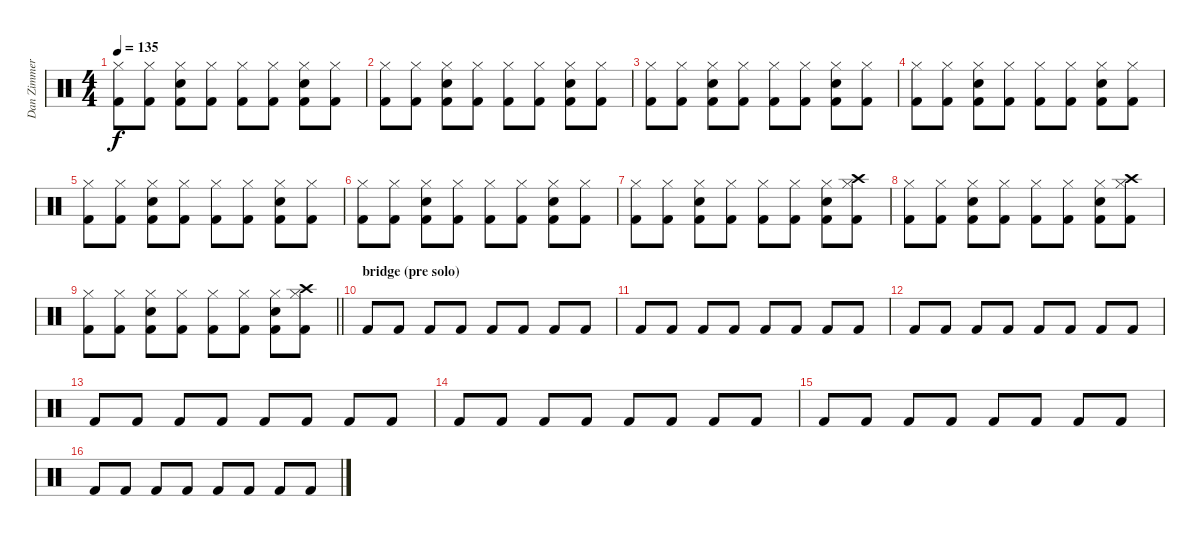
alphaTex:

\track ("Dan Zimmerman" "Dan Zimmer") {instrument percussion}
\staff {score}
\articulation defaults
\ts (4 4)
\tempo 135
\clef neutral
\ks c
("Hi-Hat (closed)" "Kick (hit) 2").8{dy f} ("Hi-Hat (closed)" "Kick (hit) 2").8 ("Snare (hit) 2" "Hi-Hat (closed)" "Kick (hit) 2").8 ("Hi-Hat (closed)" "Kick (hit) 2").8 ("Hi-Hat (closed)" "Kick (hit) 2").8 ("Hi-Hat (closed)" "Kick (hit) 2").8 ("Snare (hit) 2" "Hi-Hat (closed)" "Kick (hit) 2").8 ("Hi-Hat (closed)" "Kick (hit) 2").8 |
("Hi-Hat (closed)" "Kick (hit) 2").8 ("Hi-Hat (closed)" "Kick (hit) 2").8 ("Snare (hit) 2" "Hi-Hat (closed)" "Kick (hit) 2").8 ("Hi-Hat (closed)" "Kick (hit) 2").8 ("Hi-Hat (closed)" "Kick (hit) 2").8 ("Hi-Hat (closed)" "Kick (hit) 2").8 ("Snare (hit) 2" "Hi-Hat (closed)" "Kick (hit) 2").8 ("Hi-Hat (closed)" "Kick (hit) 2").8 |
("Hi-Hat (closed)" "Kick (hit) 2").8 ("Hi-Hat (closed)" "Kick (hit) 2").8 ("Snare (hit) 2" "Hi-Hat (closed)" "Kick (hit) 2").8 ("Hi-Hat (closed)" "Kick (hit) 2").8 ("Hi-Hat (closed)" "Kick (hit) 2").8 ("Hi-Hat (closed)" "Kick (hit) 2").8 ("Snare (hit) 2" "Hi-Hat (closed)" "Kick (hit) 2").8 ("Hi-Hat (closed)" "Kick (hit) 2").8 |
("Hi-Hat (closed)" "Kick (hit) 2").8 ("Hi-Hat (closed)" "Kick (hit) 2").8 ("Snare (hit) 2" "Hi-Hat (closed)" "Kick (hit) 2").8 ("Hi-Hat (closed)" "Kick (hit) 2").8 ("Hi-Hat (closed)" "Kick (hit) 2").8 ("Hi-Hat (closed)" "Kick (hit) 2").8 ("Snare (hit) 2" "Hi-Hat (closed)" "Kick (hit) 2").8 ("Hi-Hat (closed)" "Kick (hit) 2").8 |
("Hi-Hat (closed)" "Kick (hit) 2").8 ("Hi-Hat (closed)" "Kick (hit) 2").8 ("Snare (hit) 2" "Hi-Hat (closed)" "Kick (hit) 2").8 ("Hi-Hat (closed)" "Kick (hit) 2").8 ("Hi-Hat (closed)" "Kick (hit) 2").8 ("Hi-Hat (closed)" "Kick (hit) 2").8 ("Snare (hit) 2" "Hi-Hat (closed)" "Kick (hit) 2").8 ("Hi-Hat (closed)" "Kick (hit) 2").8 |
("Hi-Hat (closed)" "Kick (hit) 2").8 ("Hi-Hat (closed)" "Kick (hit) 2").8 ("Snare (hit) 2" "Hi-Hat (closed)" "Kick (hit) 2").8 ("Hi-Hat (closed)" "Kick (hit) 2").8 ("Hi-Hat (closed)" "Kick (hit) 2").8 ("Hi-Hat (closed)" "Kick (hit) 2").8 ("Snare (hit) 2" "Hi-Hat (closed)" "Kick (hit) 2").8 ("Hi-Hat (closed)" "Kick (hit) 2").8 |
("Hi-Hat (closed)" "Kick (hit) 2").8 ("Hi-Hat (closed)" "Kick (hit) 2").8 ("Snare (hit) 2" "Hi-Hat (closed)" "Kick (hit) 2").8 ("Hi-Hat (closed)" "Kick (hit) 2").8 ("Hi-Hat (closed)" "Kick (hit) 2").8 ("Hi-Hat (closed)" "Kick (hit) 2").8 ("Snare (hit) 2" "Hi-Hat (closed)" "Kick (hit) 2").8 ("Crash high (hit)" "Hi-Hat (closed)" "Kick (hit) 2").8 |
("Hi-Hat (closed)" "Kick (hit) 2").8 ("Hi-Hat (closed)" "Kick (hit) 2").8 ("Snare (hit) 2" "Hi-Hat (closed)" "Kick (hit) 2").8 ("Hi-Hat (closed)" "Kick (hit) 2").8 ("Hi-Hat (closed)" "Kick (hit) 2").8 ("Hi-Hat (closed)" "Kick (hit) 2").8 ("Snare (hit) 2" "Hi-Hat (closed)" "Kick (hit) 2").8 ("Crash high (hit)" "Hi-Hat (closed)" "Kick (hit) 2").8 |
\barLineRight lightlight
("Hi-Hat (closed)" "Kick (hit) 2").8 ("Hi-Hat (closed)" "Kick (hit) 2").8 ("Snare (hit) 2" "Hi-Hat (closed)" "Kick (hit) 2").8 ("Hi-Hat (closed)" "Kick (hit) 2").8 ("Hi-Hat (closed)" "Kick (hit) 2").8 ("Hi-Hat (closed)" "Kick (hit) 2").8 ("Snare (hit) 2" "Hi-Hat (closed)" "Kick (hit) 2").8 ("Crash high (hit)" "Hi-Hat (closed)" "Kick (hit) 2").8 |
\section ("" "bridge (pre solo)")
"Kick (hit) 2".8 "Kick (hit) 2".8 "Kick (hit) 2".8 "Kick (hit) 2".8 "Kick (hit) 2".8 "Kick (hit) 2".8 "Kick (hit) 2".8 "Kick (hit) 2".8 |
"Kick (hit) 2".8 "Kick (hit) 2".8 "Kick (hit) 2".8 "Kick (hit) 2".8 "Kick (hit) 2".8 "Kick (hit) 2".8 "Kick (hit) 2".8 "Kick (hit) 2".8 |
"Kick (hit) 2".8 "Kick (hit) 2".8 "Kick (hit) 2".8 "Kick (hit) 2".8 "Kick (hit) 2".8 "Kick (hit) 2".8 "Kick (hit) 2".8 "Kick (hit) 2".8 |
"Kick (hit) 2".8 "Kick (hit) 2".8 "Kick (hit) 2".8 "Kick (hit) 2".8 "Kick (hit) 2".8 "Kick (hit) 2".8 "Kick (hit) 2".8 "Kick (hit) 2".8 |
"Kick (hit) 2".8 "Kick (hit) 2".8 "Kick (hit) 2".8 "Kick (hit) 2".8 "Kick (hit) 2".8 "Kick (hit) 2".8 "Kick (hit) 2".8 "Kick (hit) 2".8 |
"Kick (hit) 2".8 "Kick (hit) 2".8 "Kick (hit) 2".8 "Kick (hit) 2".8 "Kick (hit) 2".8 "Kick (hit) 2".8 "Kick (hit) 2".8 "Kick (hit) 2".8 |
"Kick (hit) 2".8 "Kick (hit) 2".8 "Kick (hit) 2".8 "Kick (hit) 2".8 "Kick (hit) 2".8 "Kick (hit) 2".8 "Kick (hit) 2".8 "Kick (hit) 2".8
